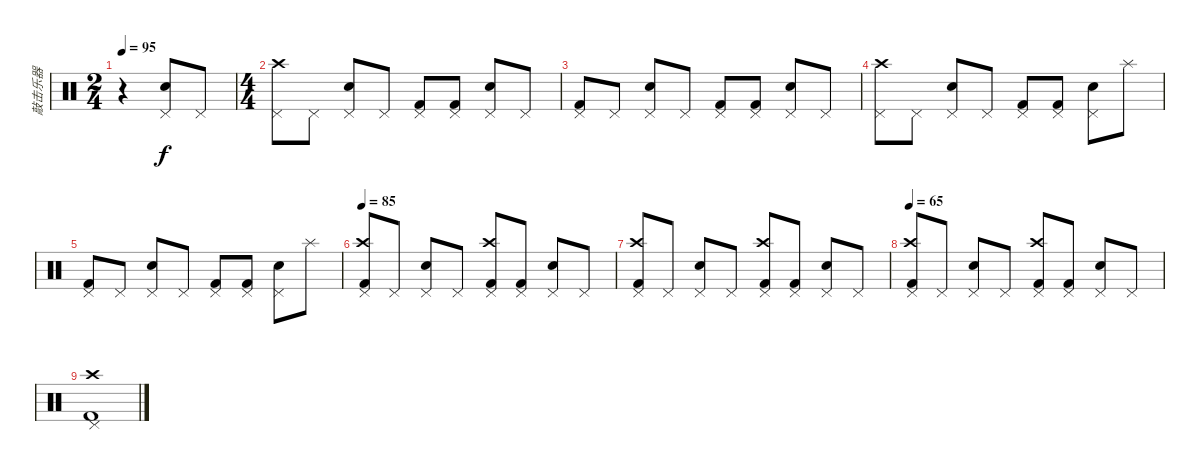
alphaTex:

\track ("敲击乐器" "敲击乐器") {instrument percussion}
\staff {score}
\articulation defaults
\ts (2 4)
\tempo 95
\clef neutral
\ks c
r.4{dy f} ("Snare (hit) 2" "Pedal Hi-Hat (hit)").8 "Pedal Hi-Hat (hit)".8 |
\ts (4 4)
("Crash high (hit)" "Pedal Hi-Hat (hit)").8 "Pedal Hi-Hat (hit)".8 ("Snare (hit) 2" "Pedal Hi-Hat (hit)").8 "Pedal Hi-Hat (hit)".8 ("Kick (hit) 2" "Pedal Hi-Hat (hit)").8 ("Kick (hit) 2" "Pedal Hi-Hat (hit)").8 ("Snare (hit) 2" "Pedal Hi-Hat (hit)").8 "Pedal Hi-Hat (hit)".8 |
("Kick (hit) 2" "Pedal Hi-Hat (hit)").8 "Pedal Hi-Hat (hit)".8 ("Snare (hit) 2" "Pedal Hi-Hat (hit)").8 "Pedal Hi-Hat (hit)".8 ("Kick (hit) 2" "Pedal Hi-Hat (hit)").8 ("Kick (hit) 2" "Pedal Hi-Hat (hit)").8 ("Snare (hit) 2" "Pedal Hi-Hat (hit)").8 "Pedal Hi-Hat (hit)".8 |
("Crash high (hit)" "Pedal Hi-Hat (hit)").8 "Pedal Hi-Hat (hit)".8 ("Snare (hit) 2" "Pedal Hi-Hat (hit)").8 "Pedal Hi-Hat (hit)".8 ("Kick (hit) 2" "Pedal Hi-Hat (hit)").8 ("Kick (hit) 2" "Pedal Hi-Hat (hit)").8 ("Snare (hit) 2" "Pedal Hi-Hat (hit)").8 "Splash (hit)".8 |
("Kick (hit) 2" "Pedal Hi-Hat (hit)").8 "Pedal Hi-Hat (hit)".8 ("Snare (hit) 2" "Pedal Hi-Hat (hit)").8 "Pedal Hi-Hat (hit)".8 ("Kick (hit) 2" "Pedal Hi-Hat (hit)").8 ("Kick (hit) 2" "Pedal Hi-Hat (hit)").8 ("Snare (hit) 2" "Pedal Hi-Hat (hit)").8 "Splash (hit)".8 |
\tempo 85
("Crash high (hit)" "Pedal Hi-Hat (hit)" "Kick (hit) 2").8 "Pedal Hi-Hat (hit)".8 ("Snare (hit) 2" "Pedal Hi-Hat (hit)").8 "Pedal Hi-Hat (hit)".8 ("Crash high (hit)" "Pedal Hi-Hat (hit)" "Kick (hit) 2").8 ("Pedal Hi-Hat (hit)" "Kick (hit) 2").8 ("Snare (hit) 2" "Pedal Hi-Hat (hit)").8 "Pedal Hi-Hat (hit)".8 |
("Kick (hit) 2" "Pedal Hi-Hat (hit)" "Crash high (hit)").8 "Pedal Hi-Hat (hit)".8 ("Snare (hit) 2" "Pedal Hi-Hat (hit)").8 "Pedal Hi-Hat (hit)".8 ("Kick (hit) 2" "Pedal Hi-Hat (hit)" "Crash high (hit)").8 ("Kick (hit) 2" "Pedal Hi-Hat (hit)").8 ("Snare (hit) 2" "Pedal Hi-Hat (hit)").8 "Pedal Hi-Hat (hit)".8 |
\tempo 65
("Kick (hit) 2" "Pedal Hi-Hat (hit)" "Crash high (hit)").8 "Pedal Hi-Hat (hit)".8 ("Snare (hit) 2" "Pedal Hi-Hat (hit)").8 "Pedal Hi-Hat (hit)".8 ("Kick (hit) 2" "Pedal Hi-Hat (hit)" "Crash high (hit)").8 ("Kick (hit) 2" "Pedal Hi-Hat (hit)").8 ("Snare (hit) 2" "Pedal Hi-Hat (hit)").8 "Pedal Hi-Hat (hit)".8 |
("Kick (hit) 2" "Pedal Hi-Hat (hit)" "Crash high (hit)").1
